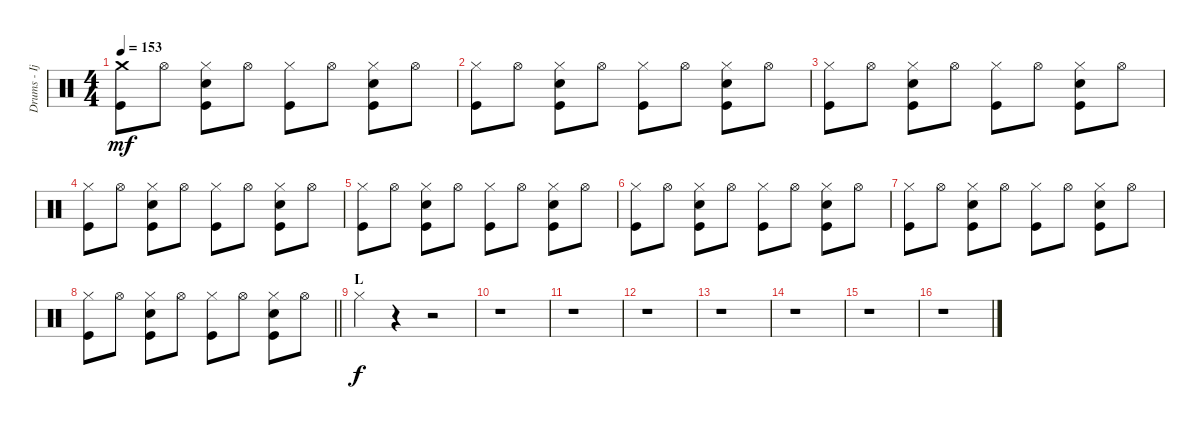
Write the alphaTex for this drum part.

\track ("Drums - Ijichi" "Drums - Ij") {instrument percussion}
\staff {score}
\articulation defaults
\ts (4 4)
\tempo 153
\clef neutral
\ks c
("Crash medium (hit)" "Kick (hit)").8{dy mf} "Hi-Hat (open)".8 ("Hi-Hat (closed)" "Electric Snare (hit)" "Kick (hit)").8 "Hi-Hat (open)".8 ("Hi-Hat (closed)" "Kick (hit)").8 "Hi-Hat (open)".8 ("Hi-Hat (closed)" "Electric Snare (hit)" "Kick (hit)").8 "Hi-Hat (open)".8 |
("Hi-Hat (closed)" "Kick (hit)").8 "Hi-Hat (open)".8 ("Hi-Hat (closed)" "Electric Snare (hit)" "Kick (hit)").8 "Hi-Hat (open)".8 ("Hi-Hat (closed)" "Kick (hit)").8 "Hi-Hat (open)".8 ("Hi-Hat (closed)" "Electric Snare (hit)" "Kick (hit)").8 "Hi-Hat (open)".8 |
("Hi-Hat (closed)" "Kick (hit)").8 "Hi-Hat (open)".8 ("Hi-Hat (closed)" "Electric Snare (hit)" "Kick (hit)").8 "Hi-Hat (open)".8 ("Hi-Hat (closed)" "Kick (hit)").8 "Hi-Hat (open)".8 ("Hi-Hat (closed)" "Electric Snare (hit)" "Kick (hit)").8 "Hi-Hat (open)".8 |
("Hi-Hat (closed)" "Kick (hit)").8 "Hi-Hat (open)".8 ("Hi-Hat (closed)" "Electric Snare (hit)" "Kick (hit)").8 "Hi-Hat (open)".8 ("Hi-Hat (closed)" "Kick (hit)").8 "Hi-Hat (open)".8 ("Hi-Hat (closed)" "Electric Snare (hit)" "Kick (hit)").8 "Hi-Hat (open)".8 |
("Hi-Hat (closed)" "Kick (hit)").8 "Hi-Hat (open)".8 ("Hi-Hat (closed)" "Electric Snare (hit)" "Kick (hit)").8 "Hi-Hat (open)".8 ("Hi-Hat (closed)" "Kick (hit)").8 "Hi-Hat (open)".8 ("Hi-Hat (closed)" "Electric Snare (hit)" "Kick (hit)").8 "Hi-Hat (open)".8 |
("Hi-Hat (closed)" "Kick (hit)").8 "Hi-Hat (open)".8 ("Hi-Hat (closed)" "Electric Snare (hit)" "Kick (hit)").8 "Hi-Hat (open)".8 ("Hi-Hat (closed)" "Kick (hit)").8 "Hi-Hat (open)".8 ("Hi-Hat (closed)" "Electric Snare (hit)" "Kick (hit)").8 "Hi-Hat (open)".8 |
("Hi-Hat (closed)" "Kick (hit)").8 "Hi-Hat (open)".8 ("Hi-Hat (closed)" "Electric Snare (hit)" "Kick (hit)").8 "Hi-Hat (open)".8 ("Hi-Hat (closed)" "Kick (hit)").8 "Hi-Hat (open)".8 ("Hi-Hat (closed)" "Electric Snare (hit)" "Kick (hit)").8 "Hi-Hat (open)".8 |
\barLineRight lightlight
("Hi-Hat (closed)" "Kick (hit)").8 "Hi-Hat (open)".8 ("Hi-Hat (closed)" "Electric Snare (hit)" "Kick (hit)").8 "Hi-Hat (open)".8 ("Hi-Hat (closed)" "Kick (hit)").8 "Hi-Hat (open)".8 ("Hi-Hat (closed)" "Electric Snare (hit)" "Kick (hit)").8 "Hi-Hat (open)".8 |
\section ("" "L")
"Hi-Hat (closed)".4{dy f} r.4 r.2 |
r.1 |
r.1 |
r.1 |
r.1 |
r.1 |
r.1 |
r.1
